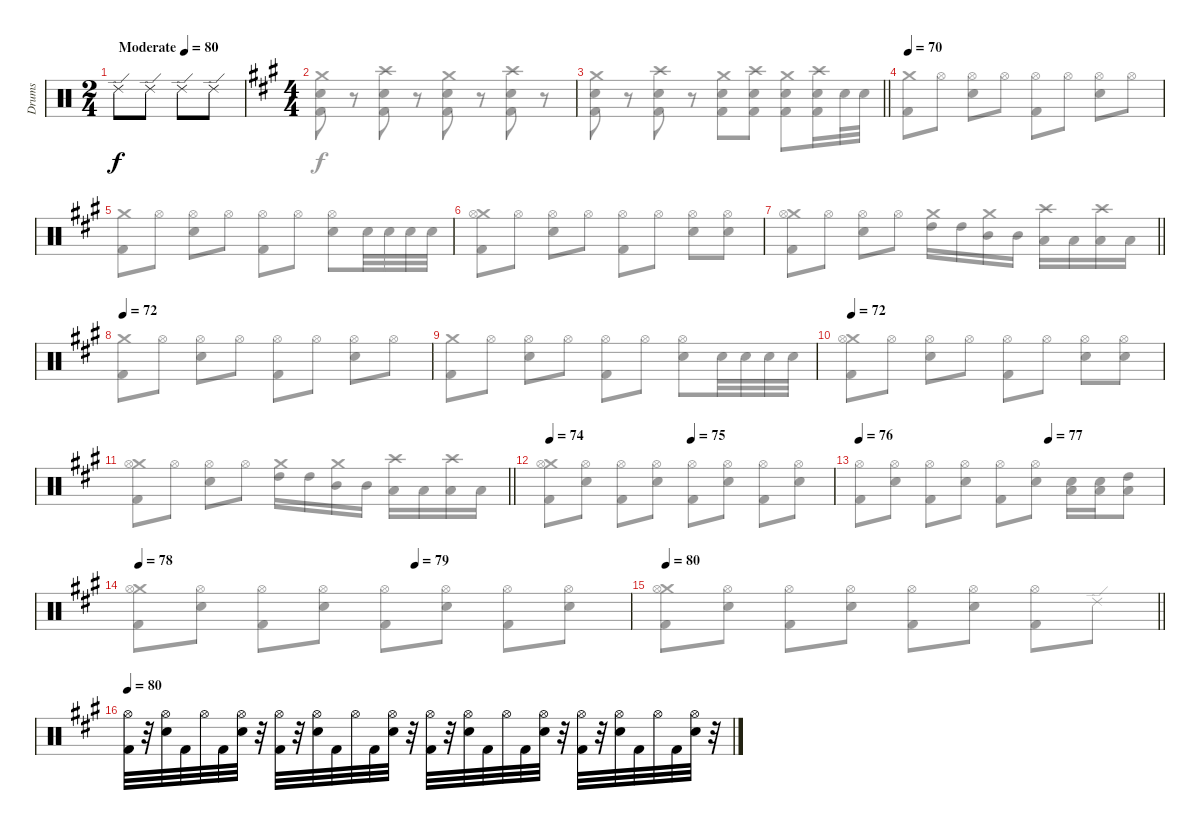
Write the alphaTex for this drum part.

\track ("Drums" "Drums") {instrument percussion}
\staff {score}
\articulation defaults
\voice
\ts (2 4)
\tempo (80 "Moderate")
\clef neutral
\ks c "Ride (edge) 2".8{dy f} "Ride (edge) 2".8 "Ride (edge) 2".8 "Ride (edge) 2".8
|
\ts (4 4)
\ks f#minor
|
\barLineRight lightlight
|
\tempo 70
|
|
|
\barLineRight lightlight
|
\tempo 72
|
|
\tempo 72
|
\barLineRight lightlight
|
\tempo 74
\tempo (75 0.5)
|
\tempo 76
\tempo (77 0.625)
|
\tempo 78
\tempo (79 0.5625)
|
\tempo 80
\barLineRight lightlight
|
\tempo 80
("Kick (hit) 2" "Hi-Hat (open)").32 r.32 ("Electric Snare (hit)" "Hi-Hat (open)").32 "Kick (hit) 2".32 "Hi-Hat (open)".32 "Kick (hit) 2".32 ("Electric Snare (hit)" "Hi-Hat (open)").32 r.32 ("Kick (hit) 2" "Hi-Hat (open)").32 r.32 ("Electric Snare (hit)" "Hi-Hat (open)").32 "Kick (hit) 2".32 "Hi-Hat (open)".32 "Kick (hit) 2".32 ("Electric Snare (hit)" "Hi-Hat (open)").32 r.32 ("Kick (hit) 2" "Hi-Hat (open)").32 r.32 ("Electric Snare (hit)" "Hi-Hat (open)").32 "Kick (hit) 2".32 "Hi-Hat (open)".32 "Kick (hit) 2".32 ("Electric Snare (hit)" "Hi-Hat (open)").32 r.32 ("Kick (hit) 2" "Hi-Hat (open)").32 r.32 ("Electric Snare (hit)" "Hi-Hat (open)").32 "Kick (hit) 2".32 "Hi-Hat (open)".32 "Kick (hit) 2".32 ("Electric Snare (hit)" "Hi-Hat (open)").32 r.32
\voice
\clef neutral
\ottava regular
\simile none
\ks c
|
\ks f#minor
("Kick (hit) 2" "Electric Snare (hit)" "Crash medium (hit)").8 r.8 ("Kick (hit) 2" "Electric Snare (hit)" "Crash high (hit)").8 r.8 ("Kick (hit) 2" "Electric Snare (hit)" "Crash medium (hit)").8 r.8 ("Kick (hit) 2" "Electric Snare (hit)" "Crash high (hit)").8 r.8 |
\barLineRight lightlight
("Kick (hit) 2" "Electric Snare (hit)" "Crash medium (hit)").8 r.8 ("Kick (hit) 2" "Electric Snare (hit)" "Crash high (hit)").8 r.8 ("Kick (hit) 2" "Electric Snare (hit)" "Crash medium (hit)").8 ("Kick (hit) 2" "Electric Snare (hit)" "Crash high (hit)").8 ("Kick (hit) 2" "Electric Snare (hit)" "Crash medium (hit)").8 ("Kick (hit) 2" "Electric Snare (hit)" "Crash high (hit)").16 "Electric Snare (hit)".32 "Electric Snare (hit)".32 |
("Kick (hit) 2" "Crash medium (hit)").8 "Hi-Hat (open)".8 ("Electric Snare (hit)" "Hi-Hat (open)").8 "Hi-Hat (open)".8 ("Kick (hit) 2" "Hi-Hat (open)").8 "Hi-Hat (open)".8 ("Electric Snare (hit)" "Hi-Hat (open)").8 "Hi-Hat (open)".8 |
("Kick (hit) 2" "Crash medium (hit)").8 "Hi-Hat (open)".8 ("Electric Snare (hit)" "Hi-Hat (open)").8 "Hi-Hat (open)".8 ("Kick (hit) 2" "Hi-Hat (open)").8 "Hi-Hat (open)".8 ("Electric Snare (hit)" "Hi-Hat (open)").8 "Electric Snare (hit)".32 "Electric Snare (hit)".32 "Electric Snare (hit)".32 "Electric Snare (hit)".32 |
("Kick (hit) 2" "Crash medium (hit)" "Hi-Hat (open)").8 "Hi-Hat (open)".8 ("Electric Snare (hit)" "Hi-Hat (open)").8 "Hi-Hat (open)".8 ("Kick (hit) 2" "Hi-Hat (open)").8 "Hi-Hat (open)".8 ("Electric Snare (hit)" "Hi-Hat (open)").8 ("Electric Snare (hit)" "Hi-Hat (open)").8 |
\barLineRight lightlight
("Kick (hit) 2" "Crash medium (hit)" "Hi-Hat (open)").8 "Hi-Hat (open)".8 ("Electric Snare (hit)" "Hi-Hat (open)").8 "Hi-Hat (open)".8 ("Crash medium (hit)" "High Tom (hit)").16 "High Tom (hit)".16 ("Crash medium (hit)" "Mid Tom (hit)").16 "Mid Tom (hit)".16 ("Crash high (hit)" "Low Tom (hit)").16 "Low Tom (hit)".16 ("Crash high (hit)" "Low Floor Tom (hit)").16 "Low Floor Tom (hit)".16 |
("Kick (hit) 2" "Crash medium (hit)").8 "Hi-Hat (open)".8 ("Electric Snare (hit)" "Hi-Hat (open)").8 "Hi-Hat (open)".8 ("Kick (hit) 2" "Hi-Hat (open)").8 "Hi-Hat (open)".8 ("Electric Snare (hit)" "Hi-Hat (open)").8 "Hi-Hat (open)".8 |
("Kick (hit) 2" "Crash medium (hit)").8 "Hi-Hat (open)".8 ("Electric Snare (hit)" "Hi-Hat (open)").8 "Hi-Hat (open)".8 ("Kick (hit) 2" "Hi-Hat (open)").8 "Hi-Hat (open)".8 ("Electric Snare (hit)" "Hi-Hat (open)").8 "Electric Snare (hit)".32 "Electric Snare (hit)".32 "Electric Snare (hit)".32 "Electric Snare (hit)".32 |
("Kick (hit) 2" "Crash medium (hit)" "Hi-Hat (open)").8 "Hi-Hat (open)".8 ("Electric Snare (hit)" "Hi-Hat (open)").8 "Hi-Hat (open)".8 ("Kick (hit) 2" "Hi-Hat (open)").8 "Hi-Hat (open)".8 ("Electric Snare (hit)" "Hi-Hat (open)").8 ("Electric Snare (hit)" "Hi-Hat (open)").8 |
\barLineRight lightlight
("Kick (hit) 2" "Crash medium (hit)" "Hi-Hat (open)").8 "Hi-Hat (open)".8 ("Electric Snare (hit)" "Hi-Hat (open)").8 "Hi-Hat (open)".8 ("Crash medium (hit)" "High Tom (hit)").16 "High Tom (hit)".16 ("Crash medium (hit)" "Mid Tom (hit)").16 "Mid Tom (hit)".16 ("Crash high (hit)" "Low Tom (hit)").16 "Low Tom (hit)".16 ("Crash high (hit)" "Low Floor Tom (hit)").16 "Low Floor Tom (hit)".16 |
("Kick (hit) 2" "Crash medium (hit)" "Hi-Hat (open)").8 ("Electric Snare (hit)" "Hi-Hat (open)").8 ("Kick (hit) 2" "Hi-Hat (open)").8 ("Electric Snare (hit)" "Hi-Hat (open)").8 ("Kick (hit) 2" "Hi-Hat (open)").8 ("Electric Snare (hit)" "Hi-Hat (open)").8 ("Kick (hit) 2" "Hi-Hat (open)").8 ("Electric Snare (hit)" "Hi-Hat (open)").8 |
("Kick (hit) 2" "Hi-Hat (open)").8 ("Electric Snare (hit)" "Hi-Hat (open)").8 ("Kick (hit) 2" "Hi-Hat (open)").8 ("Electric Snare (hit)" "Hi-Hat (open)").8 ("Kick (hit) 2" "Hi-Hat (open)").8 ("Electric Snare (hit)" "Hi-Hat (open)").8 ("Electric Snare (hit)" "Low Floor Tom (hit)").16 ("Electric Snare (hit)" "Low Floor Tom (hit)").16 ("High Tom (hit)" "Low Floor Tom (hit)").8 |
("Kick (hit) 2" "Crash medium (hit)" "Hi-Hat (open)").8 ("Electric Snare (hit)" "Hi-Hat (open)").8 ("Kick (hit) 2" "Hi-Hat (open)").8 ("Electric Snare (hit)" "Hi-Hat (open)").8 ("Kick (hit) 2" "Hi-Hat (open)").8 ("Electric Snare (hit)" "Hi-Hat (open)").8 ("Kick (hit) 2" "Hi-Hat (open)").8 ("Electric Snare (hit)" "Hi-Hat (open)").8 |
\barLineRight lightlight
("Kick (hit) 2" "Crash medium (hit)" "Hi-Hat (open)").8 ("Electric Snare (hit)" "Hi-Hat (open)").8 ("Kick (hit) 2" "Hi-Hat (open)").8 ("Electric Snare (hit)" "Hi-Hat (open)").8 ("Kick (hit) 2" "Hi-Hat (open)").8 ("Electric Snare (hit)" "Hi-Hat (open)").8 ("Kick (hit) 2" "Hi-Hat (open)").8 "Ride (edge) 2".8 |
